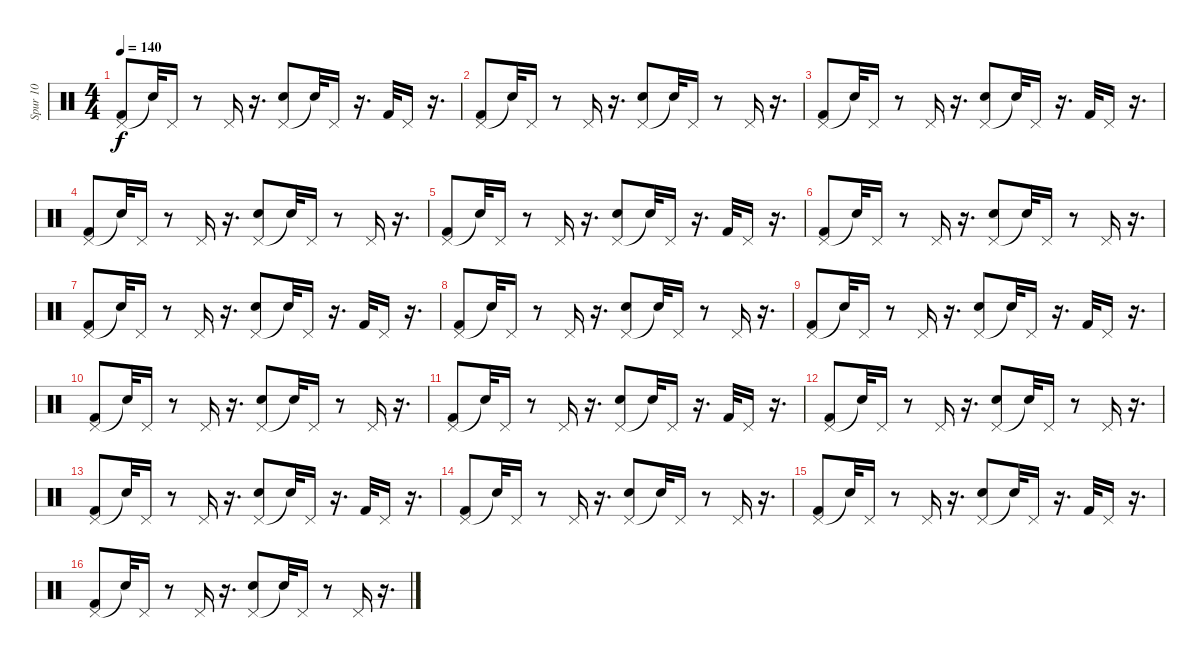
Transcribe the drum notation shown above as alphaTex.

\track ("Spur 10" "Spur 10") {instrument percussion}
\staff {score}
\articulation defaults
\ts (4 4)
\tempo 140
\clef neutral
\ks c
("Pedal Hi-Hat (hit)" "Kick (hit) 2").8{dy f} "Snare (hit)"{t}.32 "Pedal Hi-Hat (hit)".16 r.8 "Pedal Hi-Hat (hit)".16 r.16{d} ("Pedal Hi-Hat (hit)" "Snare (hit) 2").8 "Snare (hit)"{t}.32 "Pedal Hi-Hat (hit)".16 r.16{d} "Kick (hit) 2".32 "Pedal Hi-Hat (hit)".16 r.16{d} |
("Pedal Hi-Hat (hit)" "Kick (hit) 2").8 "Snare (hit)"{t}.32 "Pedal Hi-Hat (hit)".16 r.8 "Pedal Hi-Hat (hit)".16 r.16{d} ("Pedal Hi-Hat (hit)" "Snare (hit) 2").8 "Snare (hit)"{t}.32 "Pedal Hi-Hat (hit)".16 r.8 "Pedal Hi-Hat (hit)".16 r.16{d} |
("Pedal Hi-Hat (hit)" "Kick (hit) 2").8 "Snare (hit)"{t}.32 "Pedal Hi-Hat (hit)".16 r.8 "Pedal Hi-Hat (hit)".16 r.16{d} ("Pedal Hi-Hat (hit)" "Snare (hit) 2").8 "Snare (hit)"{t}.32 "Pedal Hi-Hat (hit)".16 r.16{d} "Kick (hit) 2".32 "Pedal Hi-Hat (hit)".16 r.16{d} |
("Pedal Hi-Hat (hit)" "Kick (hit) 2").8 "Snare (hit)"{t}.32 "Pedal Hi-Hat (hit)".16 r.8 "Pedal Hi-Hat (hit)".16 r.16{d} ("Pedal Hi-Hat (hit)" "Snare (hit) 2").8 "Snare (hit)"{t}.32 "Pedal Hi-Hat (hit)".16 r.8 "Pedal Hi-Hat (hit)".16 r.16{d} |
("Pedal Hi-Hat (hit)" "Kick (hit) 2").8 "Snare (hit)"{t}.32 "Pedal Hi-Hat (hit)".16 r.8 "Pedal Hi-Hat (hit)".16 r.16{d} ("Pedal Hi-Hat (hit)" "Snare (hit) 2").8 "Snare (hit)"{t}.32 "Pedal Hi-Hat (hit)".16 r.16{d} "Kick (hit) 2".32 "Pedal Hi-Hat (hit)".16 r.16{d} |
("Pedal Hi-Hat (hit)" "Kick (hit) 2").8 "Snare (hit)"{t}.32 "Pedal Hi-Hat (hit)".16 r.8 "Pedal Hi-Hat (hit)".16 r.16{d} ("Pedal Hi-Hat (hit)" "Snare (hit) 2").8 "Snare (hit)"{t}.32 "Pedal Hi-Hat (hit)".16 r.8 "Pedal Hi-Hat (hit)".16 r.16{d} |
("Pedal Hi-Hat (hit)" "Kick (hit) 2").8 "Snare (hit)"{t}.32 "Pedal Hi-Hat (hit)".16 r.8 "Pedal Hi-Hat (hit)".16 r.16{d} ("Pedal Hi-Hat (hit)" "Snare (hit) 2").8 "Snare (hit)"{t}.32 "Pedal Hi-Hat (hit)".16 r.16{d} "Kick (hit) 2".32 "Pedal Hi-Hat (hit)".16 r.16{d} |
("Pedal Hi-Hat (hit)" "Kick (hit) 2").8 "Snare (hit)"{t}.32 "Pedal Hi-Hat (hit)".16 r.8 "Pedal Hi-Hat (hit)".16 r.16{d} ("Pedal Hi-Hat (hit)" "Snare (hit) 2").8 "Snare (hit)"{t}.32 "Pedal Hi-Hat (hit)".16 r.8 "Pedal Hi-Hat (hit)".16 r.16{d} |
("Pedal Hi-Hat (hit)" "Kick (hit) 2").8 "Snare (hit)"{t}.32 "Pedal Hi-Hat (hit)".16 r.8 "Pedal Hi-Hat (hit)".16 r.16{d} ("Pedal Hi-Hat (hit)" "Snare (hit) 2").8 "Snare (hit)"{t}.32 "Pedal Hi-Hat (hit)".16 r.16{d} "Kick (hit) 2".32 "Pedal Hi-Hat (hit)".16 r.16{d} |
("Pedal Hi-Hat (hit)" "Kick (hit) 2").8 "Snare (hit)"{t}.32 "Pedal Hi-Hat (hit)".16 r.8 "Pedal Hi-Hat (hit)".16 r.16{d} ("Pedal Hi-Hat (hit)" "Snare (hit) 2").8 "Snare (hit)"{t}.32 "Pedal Hi-Hat (hit)".16 r.8 "Pedal Hi-Hat (hit)".16 r.16{d} |
("Pedal Hi-Hat (hit)" "Kick (hit) 2").8 "Snare (hit)"{t}.32 "Pedal Hi-Hat (hit)".16 r.8 "Pedal Hi-Hat (hit)".16 r.16{d} ("Pedal Hi-Hat (hit)" "Snare (hit) 2").8 "Snare (hit)"{t}.32 "Pedal Hi-Hat (hit)".16 r.16{d} "Kick (hit) 2".32 "Pedal Hi-Hat (hit)".16 r.16{d} |
("Pedal Hi-Hat (hit)" "Kick (hit) 2").8 "Snare (hit)"{t}.32 "Pedal Hi-Hat (hit)".16 r.8 "Pedal Hi-Hat (hit)".16 r.16{d} ("Pedal Hi-Hat (hit)" "Snare (hit) 2").8 "Snare (hit)"{t}.32 "Pedal Hi-Hat (hit)".16 r.8 "Pedal Hi-Hat (hit)".16 r.16{d} |
("Pedal Hi-Hat (hit)" "Kick (hit) 2").8 "Snare (hit)"{t}.32 "Pedal Hi-Hat (hit)".16 r.8 "Pedal Hi-Hat (hit)".16 r.16{d} ("Pedal Hi-Hat (hit)" "Snare (hit) 2").8 "Snare (hit)"{t}.32 "Pedal Hi-Hat (hit)".16 r.16{d} "Kick (hit) 2".32 "Pedal Hi-Hat (hit)".16 r.16{d} |
("Pedal Hi-Hat (hit)" "Kick (hit) 2").8 "Snare (hit)"{t}.32 "Pedal Hi-Hat (hit)".16 r.8 "Pedal Hi-Hat (hit)".16 r.16{d} ("Pedal Hi-Hat (hit)" "Snare (hit) 2").8 "Snare (hit)"{t}.32 "Pedal Hi-Hat (hit)".16 r.8 "Pedal Hi-Hat (hit)".16 r.16{d} |
("Pedal Hi-Hat (hit)" "Kick (hit) 2").8 "Snare (hit)"{t}.32 "Pedal Hi-Hat (hit)".16 r.8 "Pedal Hi-Hat (hit)".16 r.16{d} ("Pedal Hi-Hat (hit)" "Snare (hit) 2").8 "Snare (hit)"{t}.32 "Pedal Hi-Hat (hit)".16 r.16{d} "Kick (hit) 2".32 "Pedal Hi-Hat (hit)".16 r.16{d} |
("Pedal Hi-Hat (hit)" "Kick (hit) 2").8 "Snare (hit)"{t}.32 "Pedal Hi-Hat (hit)".16 r.8 "Pedal Hi-Hat (hit)".16 r.16{d} ("Pedal Hi-Hat (hit)" "Snare (hit) 2").8 "Snare (hit)"{t}.32 "Pedal Hi-Hat (hit)".16 r.8 "Pedal Hi-Hat (hit)".16 r.16{d}
